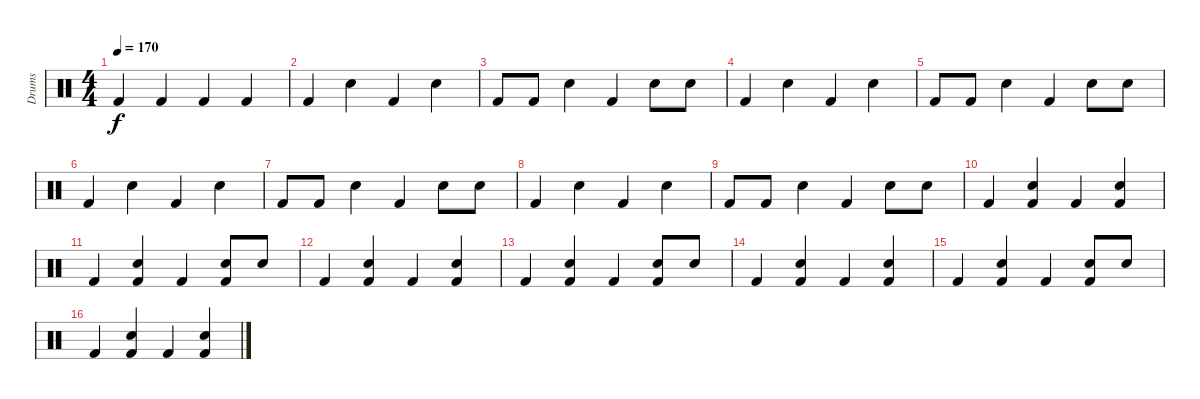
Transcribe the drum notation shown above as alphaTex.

\track ("Drums" "Drums") {instrument percussion}
\staff {score}
\articulation defaults
\ts (4 4)
\tempo 170
\clef neutral
\ks c "Kick (hit) 2".4{dy f} "Kick (hit) 2".4 "Kick (hit) 2".4 "Kick (hit) 2".4
|
"Kick (hit) 2".4 "Hand Clap (hit)".4 "Kick (hit) 2".4 "Hand Clap (hit)".4 |
"Kick (hit) 2".8 "Kick (hit) 2".8 "Hand Clap (hit)".4 "Kick (hit) 2".4 "Hand Clap (hit)".8 "Hand Clap (hit)".8 |
"Kick (hit) 2".4 "Hand Clap (hit)".4 "Kick (hit) 2".4 "Hand Clap (hit)".4 |
"Kick (hit) 2".8 "Kick (hit) 2".8 "Hand Clap (hit)".4 "Kick (hit) 2".4 "Hand Clap (hit)".8 "Hand Clap (hit)".8 |
"Kick (hit) 2".4 "Hand Clap (hit)".4 "Kick (hit) 2".4 "Hand Clap (hit)".4 |
"Kick (hit) 2".8 "Kick (hit) 2".8 "Hand Clap (hit)".4 "Kick (hit) 2".4 "Hand Clap (hit)".8 "Hand Clap (hit)".8 |
"Kick (hit) 2".4 "Hand Clap (hit)".4 "Kick (hit) 2".4 "Hand Clap (hit)".4 |
"Kick (hit) 2".8 "Kick (hit) 2".8 "Hand Clap (hit)".4 "Kick (hit) 2".4 "Hand Clap (hit)".8 "Hand Clap (hit)".8 |
"Kick (hit) 2".4 ("Hand Clap (hit)" "Kick (hit) 2").4 "Kick (hit) 2".4 ("Hand Clap (hit)" "Kick (hit) 2").4 |
"Kick (hit) 2".4 ("Hand Clap (hit)" "Kick (hit) 2").4 "Kick (hit) 2".4 ("Hand Clap (hit)" "Kick (hit) 2").8 "Hand Clap (hit)".8 |
"Kick (hit) 2".4 ("Hand Clap (hit)" "Kick (hit) 2").4 "Kick (hit) 2".4 ("Hand Clap (hit)" "Kick (hit) 2").4 |
"Kick (hit) 2".4 ("Hand Clap (hit)" "Kick (hit) 2").4 "Kick (hit) 2".4 ("Hand Clap (hit)" "Kick (hit) 2").8 "Hand Clap (hit)".8 |
"Kick (hit) 2".4 ("Hand Clap (hit)" "Kick (hit) 2").4 "Kick (hit) 2".4 ("Hand Clap (hit)" "Kick (hit) 2").4 |
"Kick (hit) 2".4 ("Hand Clap (hit)" "Kick (hit) 2").4 "Kick (hit) 2".4 ("Hand Clap (hit)" "Kick (hit) 2").8 "Hand Clap (hit)".8 |
"Kick (hit) 2".4 ("Hand Clap (hit)" "Kick (hit) 2").4 "Kick (hit) 2".4 ("Hand Clap (hit)" "Kick (hit) 2").4
